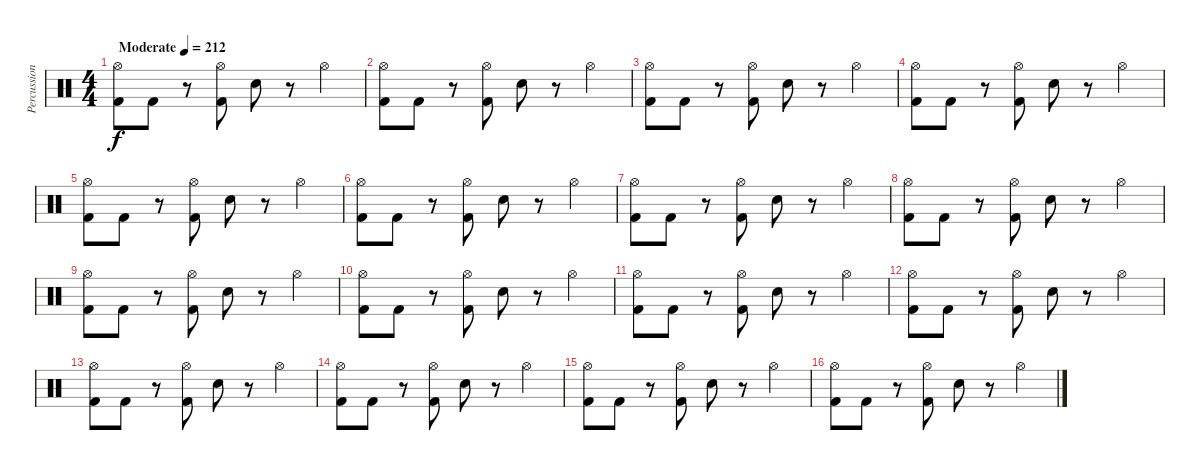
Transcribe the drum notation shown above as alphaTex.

\track ("Percussion" "Percussion") {instrument percussion}
\staff {score}
\articulation defaults
\ts (4 4)
\tempo (212 "Moderate")
\clef neutral
\ks c
("Hi-Hat (open)" "Kick (hit) 2").8{dy f} "Kick (hit) 2".8 r.8 ("Hi-Hat (open)" "Kick (hit) 2").8 "Snare (hit) 2".8 r.8 "Hi-Hat (open)".4 |
("Hi-Hat (open)" "Kick (hit) 2").8 "Kick (hit) 2".8 r.8 ("Hi-Hat (open)" "Kick (hit) 2").8 "Snare (hit) 2".8 r.8 "Hi-Hat (open)".4 |
("Hi-Hat (open)" "Kick (hit) 2").8 "Kick (hit) 2".8 r.8 ("Hi-Hat (open)" "Kick (hit) 2").8 "Snare (hit) 2".8 r.8 "Hi-Hat (open)".4 |
("Hi-Hat (open)" "Kick (hit) 2").8 "Kick (hit) 2".8 r.8 ("Hi-Hat (open)" "Kick (hit) 2").8 "Snare (hit) 2".8 r.8 "Hi-Hat (open)".4 |
("Hi-Hat (open)" "Kick (hit) 2").8 "Kick (hit) 2".8 r.8 ("Hi-Hat (open)" "Kick (hit) 2").8 "Snare (hit) 2".8 r.8 "Hi-Hat (open)".4 |
("Hi-Hat (open)" "Kick (hit) 2").8 "Kick (hit) 2".8 r.8 ("Hi-Hat (open)" "Kick (hit) 2").8 "Snare (hit) 2".8 r.8 "Hi-Hat (open)".4 |
("Hi-Hat (open)" "Kick (hit) 2").8 "Kick (hit) 2".8 r.8 ("Hi-Hat (open)" "Kick (hit) 2").8 "Snare (hit) 2".8 r.8 "Hi-Hat (open)".4 |
("Hi-Hat (open)" "Kick (hit) 2").8 "Kick (hit) 2".8 r.8 ("Hi-Hat (open)" "Kick (hit) 2").8 "Snare (hit) 2".8 r.8 "Hi-Hat (open)".4 |
("Hi-Hat (open)" "Kick (hit) 2").8 "Kick (hit) 2".8 r.8 ("Hi-Hat (open)" "Kick (hit) 2").8 "Snare (hit) 2".8 r.8 "Hi-Hat (open)".4 |
("Hi-Hat (open)" "Kick (hit) 2").8 "Kick (hit) 2".8 r.8 ("Hi-Hat (open)" "Kick (hit) 2").8 "Snare (hit) 2".8 r.8 "Hi-Hat (open)".4 |
("Hi-Hat (open)" "Kick (hit) 2").8 "Kick (hit) 2".8 r.8 ("Hi-Hat (open)" "Kick (hit) 2").8 "Snare (hit) 2".8 r.8 "Hi-Hat (open)".4 |
("Hi-Hat (open)" "Kick (hit) 2").8 "Kick (hit) 2".8 r.8 ("Hi-Hat (open)" "Kick (hit) 2").8 "Snare (hit) 2".8 r.8 "Hi-Hat (open)".4 |
("Hi-Hat (open)" "Kick (hit) 2").8 "Kick (hit) 2".8 r.8 ("Hi-Hat (open)" "Kick (hit) 2").8 "Snare (hit) 2".8 r.8 "Hi-Hat (open)".4 |
("Hi-Hat (open)" "Kick (hit) 2").8 "Kick (hit) 2".8 r.8 ("Hi-Hat (open)" "Kick (hit) 2").8 "Snare (hit) 2".8 r.8 "Hi-Hat (open)".4 |
("Hi-Hat (open)" "Kick (hit) 2").8 "Kick (hit) 2".8 r.8 ("Hi-Hat (open)" "Kick (hit) 2").8 "Snare (hit) 2".8 r.8 "Hi-Hat (open)".4 |
("Hi-Hat (open)" "Kick (hit) 2").8 "Kick (hit) 2".8 r.8 ("Hi-Hat (open)" "Kick (hit) 2").8 "Snare (hit) 2".8 r.8 "Hi-Hat (open)".4
